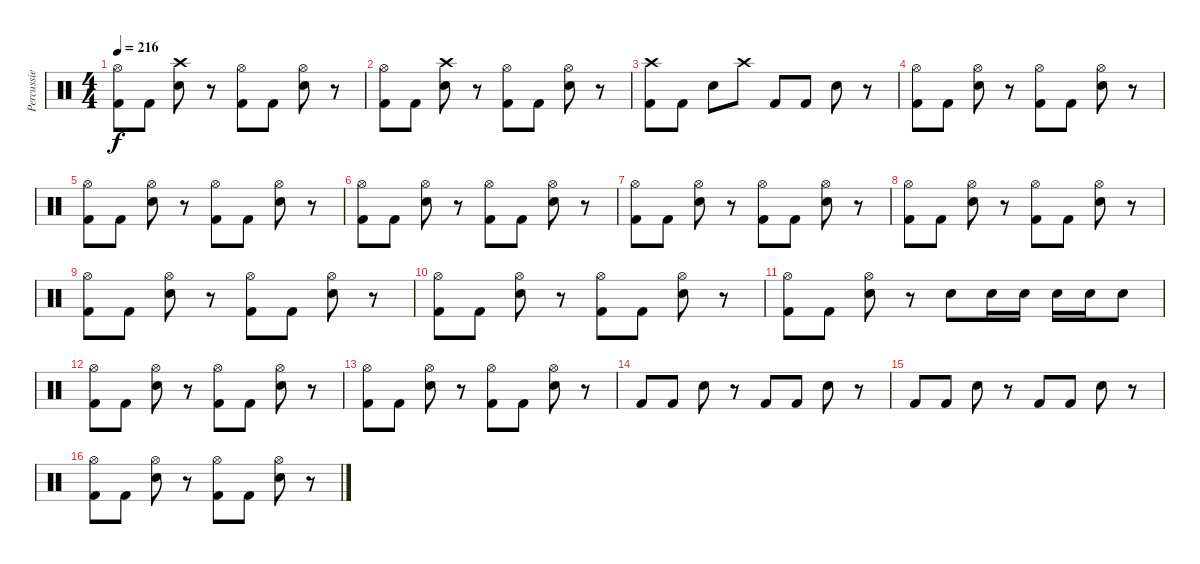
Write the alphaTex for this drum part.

\track ("Percussie" "Percussie") {instrument percussion}
\staff {score}
\articulation defaults
\ts (4 4)
\tempo 216
\clef neutral
\ks c
("Hi-Hat (open)" "Kick (hit) 2").8{dy f} "Kick (hit) 2".8 ("Crash high (hit)" "Snare (hit) 2").8 r.8 ("Hi-Hat (open)" "Kick (hit) 2").8 "Kick (hit) 2".8 ("Hi-Hat (open)" "Snare (hit) 2").8 r.8 |
("Hi-Hat (open)" "Kick (hit) 2").8 "Kick (hit) 2".8 ("Crash high (hit)" "Snare (hit) 2").8 r.8 ("Hi-Hat (open)" "Kick (hit) 2").8 "Kick (hit) 2".8 ("Hi-Hat (open)" "Snare (hit) 2").8 r.8 |
("Crash high (hit)" "Kick (hit) 2").8 "Kick (hit) 2".8 "Snare (hit) 2".8 "Crash high (hit)".8 "Kick (hit) 2".8 "Kick (hit) 2".8 "Snare (hit) 2".8 r.8 |
("Hi-Hat (open)" "Kick (hit) 2").8 "Kick (hit) 2".8 ("Hi-Hat (open)" "Snare (hit) 2").8 r.8 ("Hi-Hat (open)" "Kick (hit) 2").8 "Kick (hit) 2".8 ("Hi-Hat (open)" "Snare (hit) 2").8 r.8 |
("Hi-Hat (open)" "Kick (hit) 2").8 "Kick (hit) 2".8 ("Hi-Hat (open)" "Snare (hit) 2").8 r.8 ("Hi-Hat (open)" "Kick (hit) 2").8 "Kick (hit) 2".8 ("Hi-Hat (open)" "Snare (hit) 2").8 r.8 |
("Hi-Hat (open)" "Kick (hit) 2").8 "Kick (hit) 2".8 ("Hi-Hat (open)" "Snare (hit) 2").8 r.8 ("Hi-Hat (open)" "Kick (hit) 2").8 "Kick (hit) 2".8 ("Hi-Hat (open)" "Snare (hit) 2").8 r.8 |
("Hi-Hat (open)" "Kick (hit) 2").8 "Kick (hit) 2".8 ("Hi-Hat (open)" "Snare (hit) 2").8 r.8 ("Hi-Hat (open)" "Kick (hit) 2").8 "Kick (hit) 2".8 ("Hi-Hat (open)" "Snare (hit) 2").8 r.8 |
("Hi-Hat (open)" "Kick (hit) 2").8 "Kick (hit) 2".8 ("Hi-Hat (open)" "Snare (hit) 2").8 r.8 ("Hi-Hat (open)" "Kick (hit) 2").8 "Kick (hit) 2".8 ("Hi-Hat (open)" "Snare (hit) 2").8 r.8 |
("Hi-Hat (open)" "Kick (hit) 2").8 "Kick (hit) 2".8 ("Hi-Hat (open)" "Snare (hit) 2").8 r.8 ("Hi-Hat (open)" "Kick (hit) 2").8 "Kick (hit) 2".8 ("Hi-Hat (open)" "Snare (hit) 2").8 r.8 |
("Hi-Hat (open)" "Kick (hit) 2").8 "Kick (hit) 2".8 ("Hi-Hat (open)" "Snare (hit) 2").8 r.8 ("Hi-Hat (open)" "Kick (hit) 2").8 "Kick (hit) 2".8 ("Hi-Hat (open)" "Snare (hit) 2").8 r.8 |
("Hi-Hat (open)" "Kick (hit) 2").8 "Kick (hit) 2".8 ("Hi-Hat (open)" "Snare (hit) 2").8 r.8 "Snare (hit) 2".8 "Snare (hit) 2".16 "Snare (hit) 2".16 "Snare (hit) 2".16 "Snare (hit) 2".16 "Snare (hit) 2".8 |
("Hi-Hat (open)" "Kick (hit) 2").8 "Kick (hit) 2".8 ("Hi-Hat (open)" "Snare (hit) 2").8 r.8 ("Hi-Hat (open)" "Kick (hit) 2").8 "Kick (hit) 2".8 ("Hi-Hat (open)" "Snare (hit) 2").8 r.8 |
("Hi-Hat (open)" "Kick (hit) 2").8 "Kick (hit) 2".8 ("Hi-Hat (open)" "Snare (hit) 2").8 r.8 ("Hi-Hat (open)" "Kick (hit) 2").8 "Kick (hit) 2".8 ("Hi-Hat (open)" "Snare (hit) 2").8 r.8 |
"Kick (hit) 2".8 "Kick (hit) 2".8 "Snare (hit) 2".8 r.8 "Kick (hit) 2".8 "Kick (hit) 2".8 "Snare (hit) 2".8 r.8 |
"Kick (hit) 2".8 "Kick (hit) 2".8 "Snare (hit) 2".8 r.8 "Kick (hit) 2".8 "Kick (hit) 2".8 "Snare (hit) 2".8 r.8 |
("Hi-Hat (open)" "Kick (hit) 2").8 "Kick (hit) 2".8 ("Hi-Hat (open)" "Snare (hit) 2").8 r.8 ("Hi-Hat (open)" "Kick (hit) 2").8 "Kick (hit) 2".8 ("Hi-Hat (open)" "Snare (hit) 2").8 r.8
